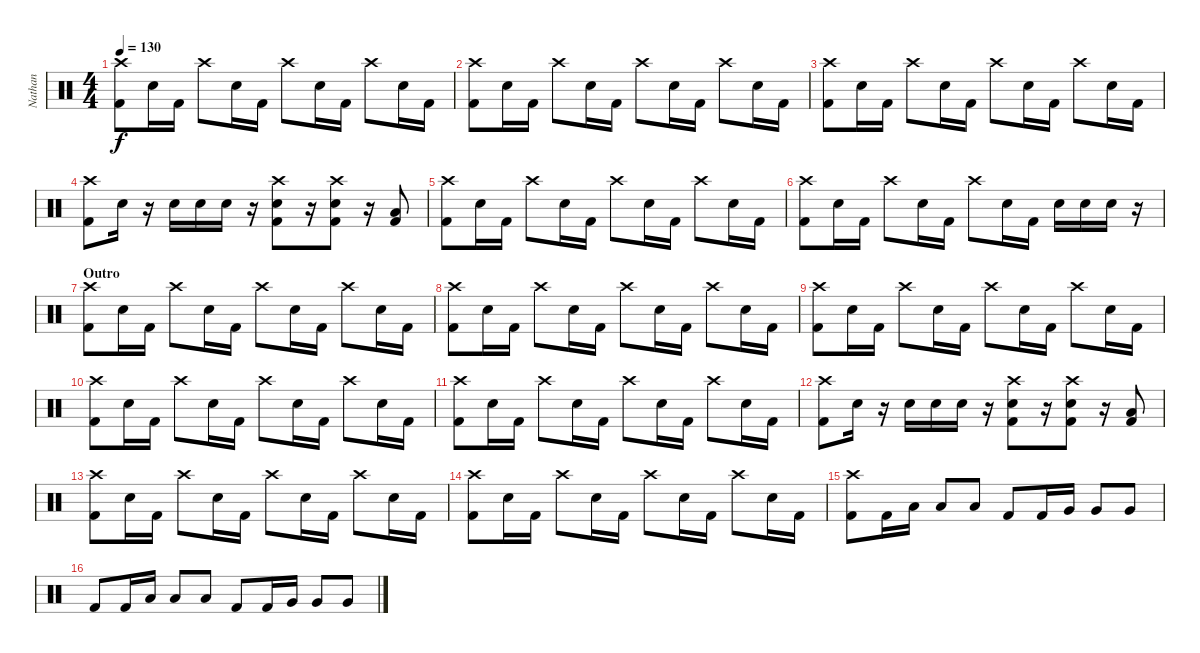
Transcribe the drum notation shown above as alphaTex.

\track ("Nathan" "Nathan") {instrument percussion}
\staff {score}
\articulation defaults
\ts (4 4)
\tempo 130
\clef neutral
\ks c
("Crash high (hit)" "Kick (hit) 2").8{dy f} "Snare (hit) 2".16 "Kick (hit) 2".16 "Crash high (hit)".8 "Snare (hit) 2".16 "Kick (hit) 2".16 "Crash high (hit)".8 "Snare (hit) 2".16 "Kick (hit) 2".16 "Crash high (hit)".8 "Snare (hit) 2".16 "Kick (hit) 2".16 |
("Crash high (hit)" "Kick (hit) 2").8 "Snare (hit) 2".16 "Kick (hit) 2".16 "Crash high (hit)".8 "Snare (hit) 2".16 "Kick (hit) 2".16 "Crash high (hit)".8 "Snare (hit) 2".16 "Kick (hit) 2".16 "Crash high (hit)".8 "Snare (hit) 2".16 "Kick (hit) 2".16 |
("Crash high (hit)" "Kick (hit) 2").8 "Snare (hit) 2".16 "Kick (hit) 2".16 "Crash high (hit)".8 "Snare (hit) 2".16 "Kick (hit) 2".16 "Crash high (hit)".8 "Snare (hit) 2".16 "Kick (hit) 2".16 "Crash high (hit)".8 "Snare (hit) 2".16 "Kick (hit) 2".16 |
("Crash high (hit)" "Kick (hit) 2").8 "Snare (hit) 2".16 r.16 "Snare (hit) 2".16 "Snare (hit) 2".16 "Snare (hit) 2".16 r.16 ("Crash high (hit)" "Snare (hit) 2" "Kick (hit) 2").8 r.16 ("Crash high (hit)" "Snare (hit) 2" "Kick (hit) 2").8 r.16 ("Low Floor Tom (hit)" "Kick (hit) 2").8 |
("Crash high (hit)" "Kick (hit) 2").8 "Snare (hit) 2".16 "Kick (hit) 2".16 "Crash high (hit)".8 "Snare (hit) 2".16 "Kick (hit) 2".16 "Crash high (hit)".8 "Snare (hit) 2".16 "Kick (hit) 2".16 "Crash high (hit)".8 "Snare (hit) 2".16 "Kick (hit) 2".16 |
("Crash high (hit)" "Kick (hit) 2").8 "Snare (hit) 2".16 "Kick (hit) 2".16 "Crash high (hit)".8 "Snare (hit) 2".16 "Kick (hit) 2".16 "Crash high (hit)".8 "Snare (hit) 2".16 "Kick (hit) 2".16 "Snare (hit) 2".16 "Snare (hit) 2".16 "Snare (hit) 2".16 r.16 |
\section ("" "Outro")
("Crash high (hit)" "Kick (hit) 2").8 "Snare (hit) 2".16 "Kick (hit) 2".16 "Crash high (hit)".8 "Snare (hit) 2".16 "Kick (hit) 2".16 "Crash high (hit)".8 "Snare (hit) 2".16 "Kick (hit) 2".16 "Crash high (hit)".8 "Snare (hit) 2".16 "Kick (hit) 2".16 |
("Crash high (hit)" "Kick (hit) 2").8 "Snare (hit) 2".16 "Kick (hit) 2".16 "Crash high (hit)".8 "Snare (hit) 2".16 "Kick (hit) 2".16 "Crash high (hit)".8 "Snare (hit) 2".16 "Kick (hit) 2".16 "Crash high (hit)".8 "Snare (hit) 2".16 "Kick (hit) 2".16 |
("Crash high (hit)" "Kick (hit) 2").8 "Snare (hit) 2".16 "Kick (hit) 2".16 "Crash high (hit)".8 "Snare (hit) 2".16 "Kick (hit) 2".16 "Crash high (hit)".8 "Snare (hit) 2".16 "Kick (hit) 2".16 "Crash high (hit)".8 "Snare (hit) 2".16 "Kick (hit) 2".16 |
("Crash high (hit)" "Kick (hit) 2").8 "Snare (hit) 2".16 "Kick (hit) 2".16 "Crash high (hit)".8 "Snare (hit) 2".16 "Kick (hit) 2".16 "Crash high (hit)".8 "Snare (hit) 2".16 "Kick (hit) 2".16 "Crash high (hit)".8 "Snare (hit) 2".16 "Kick (hit) 2".16 |
("Crash high (hit)" "Kick (hit) 2").8 "Snare (hit) 2".16 "Kick (hit) 2".16 "Crash high (hit)".8 "Snare (hit) 2".16 "Kick (hit) 2".16 "Crash high (hit)".8 "Snare (hit) 2".16 "Kick (hit) 2".16 "Crash high (hit)".8 "Snare (hit) 2".16 "Kick (hit) 2".16 |
("Crash high (hit)" "Kick (hit) 2").8 "Snare (hit) 2".16 r.16 "Snare (hit) 2".16 "Snare (hit) 2".16 "Snare (hit) 2".16 r.16 ("Crash high (hit)" "Snare (hit) 2" "Kick (hit) 2").8 r.16 ("Crash high (hit)" "Snare (hit) 2" "Kick (hit) 2").8 r.16 ("Low Floor Tom (hit)" "Kick (hit) 2").8 |
("Crash high (hit)" "Kick (hit) 2").8 "Snare (hit) 2".16 "Kick (hit) 2".16 "Crash high (hit)".8 "Snare (hit) 2".16 "Kick (hit) 2".16 "Crash high (hit)".8 "Snare (hit) 2".16 "Kick (hit) 2".16 "Crash high (hit)".8 "Snare (hit) 2".16 "Kick (hit) 2".16 |
("Crash high (hit)" "Kick (hit) 2").8 "Snare (hit) 2".16 "Kick (hit) 2".16 "Crash high (hit)".8 "Snare (hit) 2".16 "Kick (hit) 2".16 "Crash high (hit)".8 "Snare (hit) 2".16 "Kick (hit) 2".16 "Crash high (hit)".8 "Snare (hit) 2".16 "Kick (hit) 2".16 |
("Crash high (hit)" "Kick (hit) 2").8 "Kick (hit) 2".16 "Low Tom (hit)".16 "Low Tom (hit)".8 "Low Tom (hit)".8 "Kick (hit) 2".8 "Kick (hit) 2".16 "Very Low Tom (hit)".16 "Very Low Tom (hit)".8 "Very Low Tom (hit)".8 |
"Kick (hit) 2".8 "Kick (hit) 2".16 "Low Tom (hit)".16 "Low Tom (hit)".8 "Low Tom (hit)".8 "Kick (hit) 2".8 "Kick (hit) 2".16 "Very Low Tom (hit)".16 "Very Low Tom (hit)".8 "Very Low Tom (hit)".8
